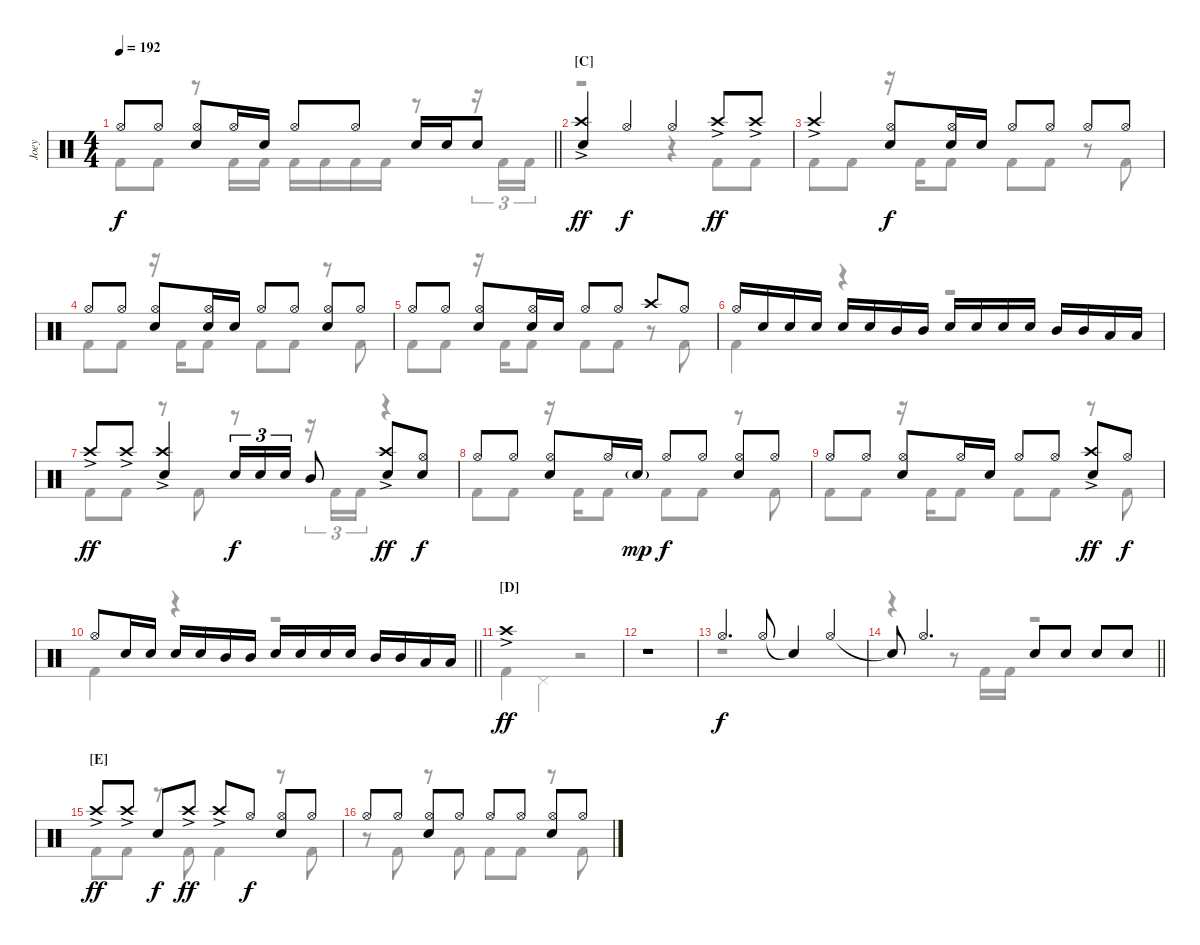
\track ("Joey" "Joey") {instrument percussion}
\staff {score}
\articulation defaults
\voice
\ts (4 4)
\tempo 192
\clef neutral
\barLineRight lightlight
\ks c "Hi-Hat (open)".8{dy f} "Hi-Hat (open)".8
("Hi-Hat (open)" "Snare (hit) 2").8 "Hi-Hat (open)".16 "Snare (hit) 2".16 "Hi-Hat (open)".8 "Hi-Hat (open)".8 "Snare (hit) 2".16 "Snare (hit) 2".16 "Snare (hit) 2".8 |
\section ("" "[C]")
("Crash high (hit)"{ac} "Snare (hit) 2").4{dy ff} "Hi-Hat (open)".4{dy f} "Hi-Hat (open)".4 "Crash high (hit)"{ac}.8{dy ff} "Crash high (hit)"{ac}.8 |
"Crash high (hit)"{ac}.4 ("Hi-Hat (open)" "Snare (hit) 2").8{dy f} ("Hi-Hat (open)" "Snare (hit) 2").16 "Snare (hit) 2".16 "Hi-Hat (open)".8 "Hi-Hat (open)".8 "Hi-Hat (open)".8 "Hi-Hat (open)".8 |
"Hi-Hat (open)".8 "Hi-Hat (open)".8 ("Hi-Hat (open)" "Snare (hit) 2").8 ("Hi-Hat (open)" "Snare (hit) 2").16 "Snare (hit) 2".16 "Hi-Hat (open)".8 "Hi-Hat (open)".8 ("Hi-Hat (open)" "Snare (hit) 2").8 "Hi-Hat (open)".8 |
"Hi-Hat (open)".8 "Hi-Hat (open)".8 ("Hi-Hat (open)" "Snare (hit) 2").8 ("Hi-Hat (open)" "Snare (hit) 2").16 "Snare (hit) 2".16 "Hi-Hat (open)".8 "Hi-Hat (open)".8 "Crash high (hit)".8 "Hi-Hat (open)".8 |
"Hi-Hat (open)".16 "Snare (hit) 2".16 "Snare (hit) 2".16 "Snare (hit) 2".16 "Snare (hit) 2".16 "Snare (hit) 2".16 "Mid Tom (hit)".16 "Mid Tom (hit)".16 "Snare (hit) 2".16 "Snare (hit) 2".16 "Snare (hit) 2".16 "Snare (hit) 2".16 "Mid Tom (hit)".16 "Mid Tom (hit)".16 "Low Tom (hit)".16 "Low Tom (hit)".16 |
"Crash high (hit)"{ac}.8{dy ff} "Crash high (hit)"{ac}.8 ("Crash high (hit)"{ac} "Snare (hit) 2").4 "Snare (hit) 2".16{tu (3 2) dy f} "Snare (hit) 2".16{tu (3 2)} "Snare (hit) 2".16{tu (3 2)} "Mid Tom (hit)".8 ("Crash high (hit)"{ac} "Snare (hit) 2").8{dy ff} ("Hi-Hat (open)" "Snare (hit) 2").8{dy f} |
"Hi-Hat (open)".8 "Hi-Hat (open)".8 ("Hi-Hat (open)" "Snare (hit) 2").8 "Hi-Hat (open)".16 "Snare (hit) 2"{g}.16{dy mp} "Hi-Hat (open)".8{dy f} "Hi-Hat (open)".8 ("Hi-Hat (open)" "Snare (hit) 2").8 "Hi-Hat (open)".8 |
"Hi-Hat (open)".8 "Hi-Hat (open)".8 ("Hi-Hat (open)" "Snare (hit) 2").8 "Hi-Hat (open)".16 "Snare (hit) 2".16 "Hi-Hat (open)".8 "Hi-Hat (open)".8 ("Crash high (hit)"{ac} "Snare (hit) 2").8{dy ff} "Hi-Hat (open)".8{dy f} |
\barLineRight lightlight "Hi-Hat (open)".8 "Snare (hit) 2".16 "Snare (hit) 2".16 "Snare (hit) 2".16 "Snare (hit) 2".16 "Mid Tom (hit)".16 "Mid Tom (hit)".16 "Snare (hit) 2".16 "Snare (hit) 2".16 "Snare (hit) 2".16 "Snare (hit) 2".16 "Mid Tom (hit)".16 "Mid Tom (hit)".16 "Low Tom (hit)".16 "Low Tom (hit)".16
|
\section ("" "[D]")
"Crash high (hit)"{ac}.1{dy ff} |
r.1 |
"Hi-Hat (open)".4{d dy f} "Hi-Hat (open)".8 "Snare (hit)"{t}.4 "Hi-Hat (open)".4 |
\barLineRight lightlight "Snare (hit)"{t}.8 "Hi-Hat (open)".4{d} "Snare (hit) 2".8 "Snare (hit) 2".8 "Snare (hit) 2".8 "Snare (hit) 2".8
|
\section ("" "[E]")
"Crash high (hit)"{ac}.8{dy ff} "Crash high (hit)"{ac}.8 "Snare (hit) 2".8{dy f} "Crash high (hit)"{ac}.8{dy ff} "Crash high (hit)"{ac}.8 "Hi-Hat (open)".8{dy f} ("Hi-Hat (open)" "Snare (hit) 2").8 "Hi-Hat (open)".8 |
"Hi-Hat (open)".8 "Hi-Hat (open)".8 ("Hi-Hat (open)" "Snare (hit) 2").8 "Hi-Hat (open)".8 "Hi-Hat (open)".8 "Hi-Hat (open)".8 ("Hi-Hat (open)" "Snare (hit) 2").8 "Hi-Hat (open)".8
\voice
\clef neutral
\ottava regular
\simile none
\barLineRight lightlight
\ks c "Kick (hit) 2".8{dy f} "Kick (hit) 2".8
r.8 "Kick (hit) 2".16 "Kick (hit) 2".16 "Kick (hit) 2".16 "Kick (hit) 2".16 "Kick (hit) 2".16 "Kick (hit) 2".16 r.8 r.16{tu (3 2)} "Kick (hit) 2".16{tu (3 2)} "Kick (hit) 2".16{tu (3 2)} |
r.2 r.4 "Kick (hit) 2".8 "Kick (hit) 2".8 |
"Kick (hit) 2".8 "Kick (hit) 2".8 r.16 "Kick (hit) 2".16 "Kick (hit) 2".8 "Kick (hit) 2".8 "Kick (hit) 2".8 r.8 "Kick (hit) 2".8 |
"Kick (hit) 2".8 "Kick (hit) 2".8 r.16 "Kick (hit) 2".16 "Kick (hit) 2".8 "Kick (hit) 2".8 "Kick (hit) 2".8 r.8 "Kick (hit) 2".8 |
"Kick (hit) 2".8 "Kick (hit) 2".8 r.16 "Kick (hit) 2".16 "Kick (hit) 2".8 "Kick (hit) 2".8 "Kick (hit) 2".8 r.8 "Kick (hit) 2".8 |
"Kick (hit) 2".4 r.4 r.2 |
"Kick (hit) 2".8 "Kick (hit) 2".8 r.8 "Kick (hit) 2".8 r.8 r.16{tu (3 2)} "Kick (hit) 2".16{tu (3 2)} "Kick (hit) 2".16{tu (3 2)} r.4 |
"Kick (hit) 2".8 "Kick (hit) 2".8 r.16 "Kick (hit) 2".16 "Kick (hit) 2".8 "Kick (hit) 2".8 "Kick (hit) 2".8 r.8 "Kick (hit) 2".8 |
"Kick (hit) 2".8 "Kick (hit) 2".8 r.16 "Kick (hit) 2".16 "Kick (hit) 2".8 "Kick (hit) 2".8 "Kick (hit) 2".8 r.8 "Kick (hit) 2".8 |
\barLineRight lightlight "Kick (hit) 2".4
r.4 r.2 |
"Kick (hit) 2".4 "Pedal Hi-Hat (hit)".4 r.2 |
r.1 |
r.1 |
\barLineRight lightlight
r.4 r.8 "Kick (hit) 2".16 "Kick (hit) 2".16 r.2 |
"Kick (hit) 2".8 "Kick (hit) 2".8 r.8 "Kick (hit) 2".8 "Kick (hit) 2".4 r.8 "Kick (hit) 2".8 |
r.8 "Kick (hit) 2".8 r.8 "Kick (hit) 2".8 "Kick (hit) 2".8 "Kick (hit) 2".8 r.8 "Kick (hit) 2".8
